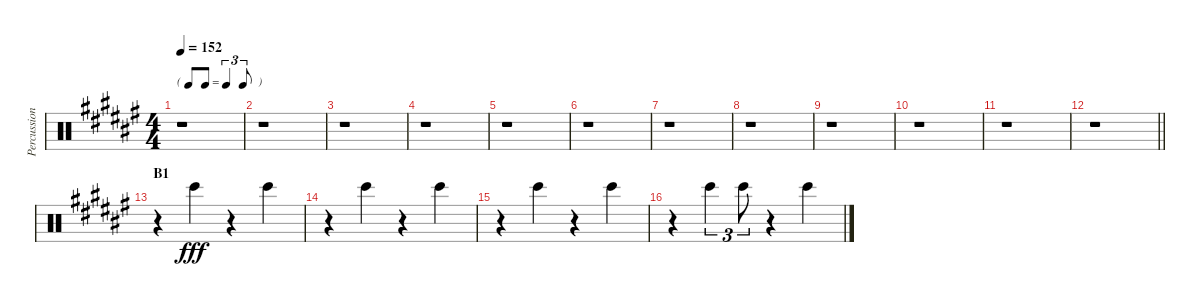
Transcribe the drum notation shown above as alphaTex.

\track ("Percussion" "Percussion") {instrument percussion}
\staff {score}
\articulation defaults
\ts (4 4)
\tf triplet8th
\tempo 152
\clef neutral
\ks f#
r.1{dy fff} |
r.1 |
r.1 |
r.1 |
r.1 |
r.1 |
r.1 |
r.1 |
r.1 |
r.1 |
r.1 |
\barLineRight lightlight
r.1 |
\section ("" "B1")
r.4 "Bongo High (hit)".4 r.4 "Bongo High (hit)".4 |
r.4 "Bongo High (hit)".4 r.4 "Bongo High (hit)".4 |
r.4 "Bongo High (hit)".4 r.4 "Bongo High (hit)".4 |
r.4 "Bongo High (hit)".4{tu (3 2)} "Bongo High (hit)".8{tu (3 2)} r.4 "Bongo High (hit)".4
